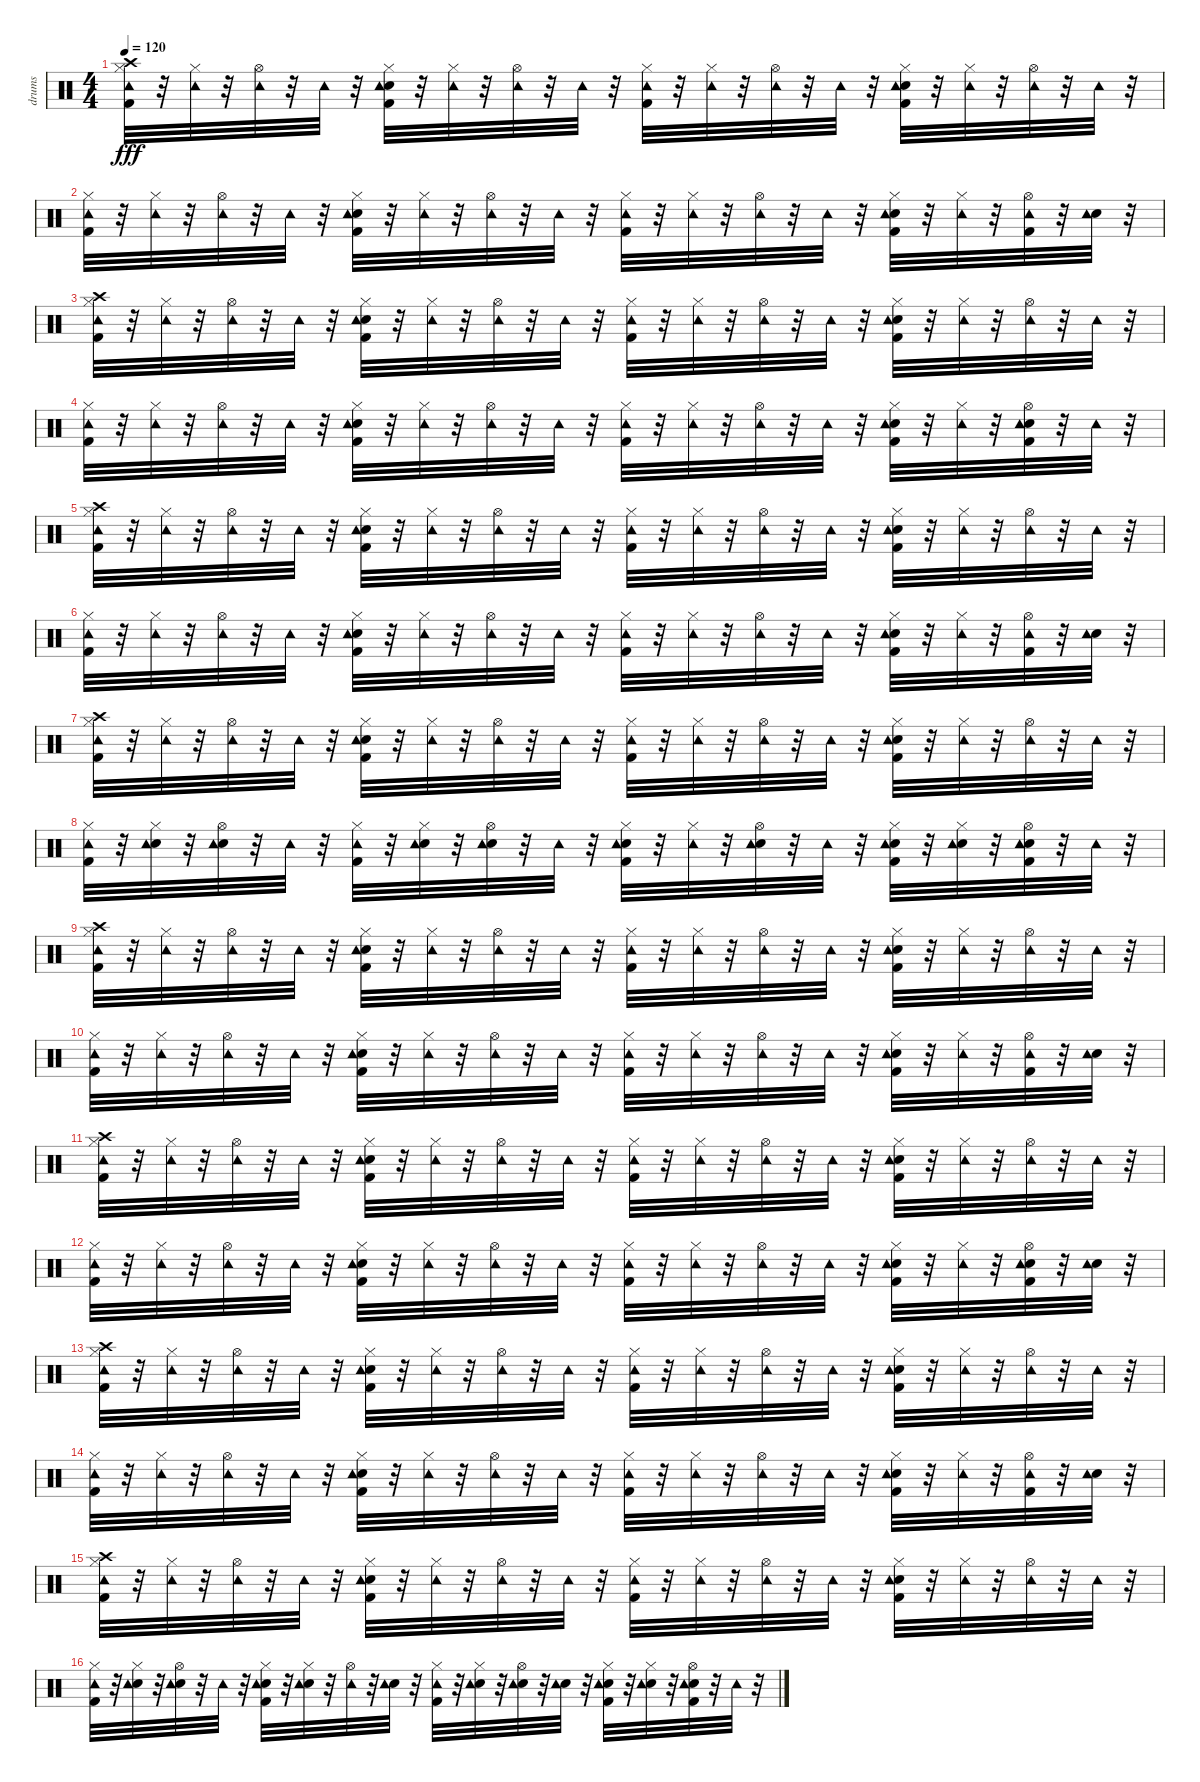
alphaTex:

\track ("drums" "drums") {instrument percussion}
\staff {score}
\articulation defaults
\ts (4 4)
\tempo 120
\clef neutral
\ks c
("Crash high (hit)" "Kick (hit) 2" "Hi-Hat (closed)" "Tambourine (hit)").32{dy fff} r.32 ("Hi-Hat (closed)" "Tambourine (hit)").32 r.32 ("Hi-Hat (open)" "Tambourine (hit)").32 r.32 "Tambourine (hit)".32 r.32 ("Snare (hit) 2" "Kick (hit) 2" "Hi-Hat (closed)" "Tambourine (hit)").32 r.32 ("Hi-Hat (closed)" "Tambourine (hit)").32 r.32 ("Hi-Hat (open)" "Tambourine (hit)").32 r.32 "Tambourine (hit)".32 r.32 ("Kick (hit) 2" "Hi-Hat (closed)" "Tambourine (hit)").32 r.32 ("Hi-Hat (closed)" "Tambourine (hit)").32 r.32 ("Hi-Hat (open)" "Tambourine (hit)").32 r.32 "Tambourine (hit)".32 r.32 ("Snare (hit) 2" "Kick (hit) 2" "Hi-Hat (closed)" "Tambourine (hit)").32 r.32 ("Hi-Hat (closed)" "Tambourine (hit)").32 r.32 ("Hi-Hat (open)" "Tambourine (hit)").32 r.32 "Tambourine (hit)".32 r.32 |
("Kick (hit) 2" "Hi-Hat (closed)" "Tambourine (hit)").32 r.32 ("Hi-Hat (closed)" "Tambourine (hit)").32 r.32 ("Hi-Hat (open)" "Tambourine (hit)").32 r.32 "Tambourine (hit)".32 r.32 ("Snare (hit) 2" "Kick (hit) 2" "Hi-Hat (closed)" "Tambourine (hit)").32 r.32 ("Hi-Hat (closed)" "Tambourine (hit)").32 r.32 ("Hi-Hat (open)" "Tambourine (hit)").32 r.32 "Tambourine (hit)".32 r.32 ("Kick (hit) 2" "Hi-Hat (closed)" "Tambourine (hit)").32 r.32 ("Hi-Hat (closed)" "Tambourine (hit)").32 r.32 ("Hi-Hat (open)" "Tambourine (hit)").32 r.32 "Tambourine (hit)".32 r.32 ("Snare (hit) 2" "Kick (hit) 2" "Hi-Hat (closed)" "Tambourine (hit)").32 r.32 ("Hi-Hat (closed)" "Tambourine (hit)").32 r.32 ("Kick (hit) 2" "Hi-Hat (open)" "Tambourine (hit)").32 r.32 ("Snare (hit) 2" "Tambourine (hit)").32 r.32 |
("Crash high (hit)" "Kick (hit) 2" "Hi-Hat (closed)" "Tambourine (hit)").32 r.32 ("Hi-Hat (closed)" "Tambourine (hit)").32 r.32 ("Hi-Hat (open)" "Tambourine (hit)").32 r.32 "Tambourine (hit)".32 r.32 ("Snare (hit) 2" "Kick (hit) 2" "Hi-Hat (closed)" "Tambourine (hit)").32 r.32 ("Hi-Hat (closed)" "Tambourine (hit)").32 r.32 ("Hi-Hat (open)" "Tambourine (hit)").32 r.32 "Tambourine (hit)".32 r.32 ("Kick (hit) 2" "Hi-Hat (closed)" "Tambourine (hit)").32 r.32 ("Hi-Hat (closed)" "Tambourine (hit)").32 r.32 ("Hi-Hat (open)" "Tambourine (hit)").32 r.32 "Tambourine (hit)".32 r.32 ("Snare (hit) 2" "Kick (hit) 2" "Hi-Hat (closed)" "Tambourine (hit)").32 r.32 ("Hi-Hat (closed)" "Tambourine (hit)").32 r.32 ("Hi-Hat (open)" "Tambourine (hit)").32 r.32 "Tambourine (hit)".32 r.32 |
("Kick (hit) 2" "Hi-Hat (closed)" "Tambourine (hit)").32 r.32 ("Hi-Hat (closed)" "Tambourine (hit)").32 r.32 ("Hi-Hat (open)" "Tambourine (hit)").32 r.32 "Tambourine (hit)".32 r.32 ("Snare (hit) 2" "Kick (hit) 2" "Hi-Hat (closed)" "Tambourine (hit)").32 r.32 ("Hi-Hat (closed)" "Tambourine (hit)").32 r.32 ("Hi-Hat (open)" "Tambourine (hit)").32 r.32 "Tambourine (hit)".32 r.32 ("Kick (hit) 2" "Hi-Hat (closed)" "Tambourine (hit)").32 r.32 ("Hi-Hat (closed)" "Tambourine (hit)").32 r.32 ("Hi-Hat (open)" "Tambourine (hit)").32 r.32 "Tambourine (hit)".32 r.32 ("Snare (hit) 2" "Kick (hit) 2" "Hi-Hat (closed)" "Tambourine (hit)").32 r.32 ("Hi-Hat (closed)" "Tambourine (hit)").32 r.32 ("Kick (hit) 2" "Snare (hit) 2" "Hi-Hat (open)" "Tambourine (hit)").32 r.32 "Tambourine (hit)".32 r.32 |
("Crash high (hit)" "Kick (hit) 2" "Hi-Hat (closed)" "Tambourine (hit)").32 r.32 ("Hi-Hat (closed)" "Tambourine (hit)").32 r.32 ("Hi-Hat (open)" "Tambourine (hit)").32 r.32 "Tambourine (hit)".32 r.32 ("Snare (hit) 2" "Kick (hit) 2" "Hi-Hat (closed)" "Tambourine (hit)").32 r.32 ("Hi-Hat (closed)" "Tambourine (hit)").32 r.32 ("Hi-Hat (open)" "Tambourine (hit)").32 r.32 "Tambourine (hit)".32 r.32 ("Kick (hit) 2" "Hi-Hat (closed)" "Tambourine (hit)").32 r.32 ("Hi-Hat (closed)" "Tambourine (hit)").32 r.32 ("Hi-Hat (open)" "Tambourine (hit)").32 r.32 "Tambourine (hit)".32 r.32 ("Snare (hit) 2" "Kick (hit) 2" "Hi-Hat (closed)" "Tambourine (hit)").32 r.32 ("Hi-Hat (closed)" "Tambourine (hit)").32 r.32 ("Hi-Hat (open)" "Tambourine (hit)").32 r.32 "Tambourine (hit)".32 r.32 |
("Kick (hit) 2" "Hi-Hat (closed)" "Tambourine (hit)").32 r.32 ("Hi-Hat (closed)" "Tambourine (hit)").32 r.32 ("Hi-Hat (open)" "Tambourine (hit)").32 r.32 "Tambourine (hit)".32 r.32 ("Snare (hit) 2" "Kick (hit) 2" "Hi-Hat (closed)" "Tambourine (hit)").32 r.32 ("Hi-Hat (closed)" "Tambourine (hit)").32 r.32 ("Hi-Hat (open)" "Tambourine (hit)").32 r.32 "Tambourine (hit)".32 r.32 ("Kick (hit) 2" "Hi-Hat (closed)" "Tambourine (hit)").32 r.32 ("Hi-Hat (closed)" "Tambourine (hit)").32 r.32 ("Hi-Hat (open)" "Tambourine (hit)").32 r.32 "Tambourine (hit)".32 r.32 ("Snare (hit) 2" "Kick (hit) 2" "Hi-Hat (closed)" "Tambourine (hit)").32 r.32 ("Hi-Hat (closed)" "Tambourine (hit)").32 r.32 ("Kick (hit) 2" "Hi-Hat (open)" "Tambourine (hit)").32 r.32 ("Snare (hit) 2" "Tambourine (hit)").32 r.32 |
("Crash high (hit)" "Kick (hit) 2" "Hi-Hat (closed)" "Tambourine (hit)").32 r.32 ("Hi-Hat (closed)" "Tambourine (hit)").32 r.32 ("Hi-Hat (open)" "Tambourine (hit)").32 r.32 "Tambourine (hit)".32 r.32 ("Snare (hit) 2" "Kick (hit) 2" "Hi-Hat (closed)" "Tambourine (hit)").32 r.32 ("Hi-Hat (closed)" "Tambourine (hit)").32 r.32 ("Hi-Hat (open)" "Tambourine (hit)").32 r.32 "Tambourine (hit)".32 r.32 ("Kick (hit) 2" "Hi-Hat (closed)" "Tambourine (hit)").32 r.32 ("Hi-Hat (closed)" "Tambourine (hit)").32 r.32 ("Hi-Hat (open)" "Tambourine (hit)").32 r.32 "Tambourine (hit)".32 r.32 ("Snare (hit) 2" "Kick (hit) 2" "Hi-Hat (closed)" "Tambourine (hit)").32 r.32 ("Hi-Hat (closed)" "Tambourine (hit)").32 r.32 ("Hi-Hat (open)" "Tambourine (hit)").32 r.32 "Tambourine (hit)".32 r.32 |
("Kick (hit) 2" "Hi-Hat (closed)" "Tambourine (hit)").32 r.32 ("Snare (hit) 2" "Hi-Hat (closed)" "Tambourine (hit)").32 r.32 ("Snare (hit) 2" "Hi-Hat (open)" "Tambourine (hit)").32 r.32 "Tambourine (hit)".32 r.32 ("Kick (hit) 2" "Hi-Hat (closed)" "Tambourine (hit)").32 r.32 ("Snare (hit) 2" "Hi-Hat (closed)" "Tambourine (hit)").32 r.32 ("Snare (hit) 2" "Hi-Hat (open)" "Tambourine (hit)").32 r.32 "Tambourine (hit)".32 r.32 ("Kick (hit) 2" "Snare (hit) 2" "Hi-Hat (closed)" "Tambourine (hit)").32 r.32 ("Hi-Hat (closed)" "Tambourine (hit)").32 r.32 ("Snare (hit) 2" "Hi-Hat (open)" "Tambourine (hit)").32 r.32 "Tambourine (hit)".32 r.32 ("Snare (hit) 2" "Kick (hit) 2" "Hi-Hat (closed)" "Tambourine (hit)").32 r.32 ("Snare (hit) 2" "Hi-Hat (closed)" "Tambourine (hit)").32 r.32 ("Kick (hit) 2" "Snare (hit) 2" "Hi-Hat (open)" "Tambourine (hit)").32 r.32 "Tambourine (hit)".32 r.32 |
("Crash high (hit)" "Kick (hit) 2" "Hi-Hat (closed)" "Tambourine (hit)").32 r.32 ("Hi-Hat (closed)" "Tambourine (hit)").32 r.32 ("Hi-Hat (open)" "Tambourine (hit)").32 r.32 "Tambourine (hit)".32 r.32 ("Snare (hit) 2" "Kick (hit) 2" "Hi-Hat (closed)" "Tambourine (hit)").32 r.32 ("Hi-Hat (closed)" "Tambourine (hit)").32 r.32 ("Hi-Hat (open)" "Tambourine (hit)").32 r.32 "Tambourine (hit)".32 r.32 ("Kick (hit) 2" "Hi-Hat (closed)" "Tambourine (hit)").32 r.32 ("Hi-Hat (closed)" "Tambourine (hit)").32 r.32 ("Hi-Hat (open)" "Tambourine (hit)").32 r.32 "Tambourine (hit)".32 r.32 ("Snare (hit) 2" "Kick (hit) 2" "Hi-Hat (closed)" "Tambourine (hit)").32 r.32 ("Hi-Hat (closed)" "Tambourine (hit)").32 r.32 ("Hi-Hat (open)" "Tambourine (hit)").32 r.32 "Tambourine (hit)".32 r.32 |
("Kick (hit) 2" "Hi-Hat (closed)" "Tambourine (hit)").32 r.32 ("Hi-Hat (closed)" "Tambourine (hit)").32 r.32 ("Hi-Hat (open)" "Tambourine (hit)").32 r.32 "Tambourine (hit)".32 r.32 ("Snare (hit) 2" "Kick (hit) 2" "Hi-Hat (closed)" "Tambourine (hit)").32 r.32 ("Hi-Hat (closed)" "Tambourine (hit)").32 r.32 ("Hi-Hat (open)" "Tambourine (hit)").32 r.32 "Tambourine (hit)".32 r.32 ("Kick (hit) 2" "Hi-Hat (closed)" "Tambourine (hit)").32 r.32 ("Hi-Hat (closed)" "Tambourine (hit)").32 r.32 ("Hi-Hat (open)" "Tambourine (hit)").32 r.32 "Tambourine (hit)".32 r.32 ("Snare (hit) 2" "Kick (hit) 2" "Hi-Hat (closed)" "Tambourine (hit)").32 r.32 ("Hi-Hat (closed)" "Tambourine (hit)").32 r.32 ("Kick (hit) 2" "Hi-Hat (open)" "Tambourine (hit)").32 r.32 ("Snare (hit) 2" "Tambourine (hit)").32 r.32 |
("Crash high (hit)" "Kick (hit) 2" "Hi-Hat (closed)" "Tambourine (hit)").32 r.32 ("Hi-Hat (closed)" "Tambourine (hit)").32 r.32 ("Hi-Hat (open)" "Tambourine (hit)").32 r.32 "Tambourine (hit)".32 r.32 ("Snare (hit) 2" "Kick (hit) 2" "Hi-Hat (closed)" "Tambourine (hit)").32 r.32 ("Hi-Hat (closed)" "Tambourine (hit)").32 r.32 ("Hi-Hat (open)" "Tambourine (hit)").32 r.32 "Tambourine (hit)".32 r.32 ("Kick (hit) 2" "Hi-Hat (closed)" "Tambourine (hit)").32 r.32 ("Hi-Hat (closed)" "Tambourine (hit)").32 r.32 ("Hi-Hat (open)" "Tambourine (hit)").32 r.32 "Tambourine (hit)".32 r.32 ("Snare (hit) 2" "Kick (hit) 2" "Hi-Hat (closed)" "Tambourine (hit)").32 r.32 ("Hi-Hat (closed)" "Tambourine (hit)").32 r.32 ("Hi-Hat (open)" "Tambourine (hit)").32 r.32 "Tambourine (hit)".32 r.32 |
("Kick (hit) 2" "Hi-Hat (closed)" "Tambourine (hit)").32 r.32 ("Hi-Hat (closed)" "Tambourine (hit)").32 r.32 ("Hi-Hat (open)" "Tambourine (hit)").32 r.32 "Tambourine (hit)".32 r.32 ("Snare (hit) 2" "Kick (hit) 2" "Hi-Hat (closed)" "Tambourine (hit)").32 r.32 ("Hi-Hat (closed)" "Tambourine (hit)").32 r.32 ("Hi-Hat (open)" "Tambourine (hit)").32 r.32 "Tambourine (hit)".32 r.32 ("Kick (hit) 2" "Hi-Hat (closed)" "Tambourine (hit)").32 r.32 ("Hi-Hat (closed)" "Tambourine (hit)").32 r.32 ("Hi-Hat (open)" "Tambourine (hit)").32 r.32 "Tambourine (hit)".32 r.32 ("Snare (hit) 2" "Kick (hit) 2" "Hi-Hat (closed)" "Tambourine (hit)").32 r.32 ("Hi-Hat (closed)" "Tambourine (hit)").32 r.32 ("Kick (hit) 2" "Snare (hit) 2" "Hi-Hat (open)" "Tambourine (hit)").32 r.32 ("Snare (hit) 2" "Tambourine (hit)").32 r.32 |
("Crash high (hit)" "Kick (hit) 2" "Hi-Hat (closed)" "Tambourine (hit)").32 r.32 ("Hi-Hat (closed)" "Tambourine (hit)").32 r.32 ("Hi-Hat (open)" "Tambourine (hit)").32 r.32 "Tambourine (hit)".32 r.32 ("Snare (hit) 2" "Kick (hit) 2" "Hi-Hat (closed)" "Tambourine (hit)").32 r.32 ("Hi-Hat (closed)" "Tambourine (hit)").32 r.32 ("Hi-Hat (open)" "Tambourine (hit)").32 r.32 "Tambourine (hit)".32 r.32 ("Kick (hit) 2" "Hi-Hat (closed)" "Tambourine (hit)").32 r.32 ("Hi-Hat (closed)" "Tambourine (hit)").32 r.32 ("Hi-Hat (open)" "Tambourine (hit)").32 r.32 "Tambourine (hit)".32 r.32 ("Snare (hit) 2" "Kick (hit) 2" "Hi-Hat (closed)" "Tambourine (hit)").32 r.32 ("Hi-Hat (closed)" "Tambourine (hit)").32 r.32 ("Hi-Hat (open)" "Tambourine (hit)").32 r.32 "Tambourine (hit)".32 r.32 |
("Kick (hit) 2" "Hi-Hat (closed)" "Tambourine (hit)").32 r.32 ("Hi-Hat (closed)" "Tambourine (hit)").32 r.32 ("Hi-Hat (open)" "Tambourine (hit)").32 r.32 "Tambourine (hit)".32 r.32 ("Snare (hit) 2" "Kick (hit) 2" "Hi-Hat (closed)" "Tambourine (hit)").32 r.32 ("Hi-Hat (closed)" "Tambourine (hit)").32 r.32 ("Hi-Hat (open)" "Tambourine (hit)").32 r.32 "Tambourine (hit)".32 r.32 ("Kick (hit) 2" "Hi-Hat (closed)" "Tambourine (hit)").32 r.32 ("Hi-Hat (closed)" "Tambourine (hit)").32 r.32 ("Hi-Hat (open)" "Tambourine (hit)").32 r.32 "Tambourine (hit)".32 r.32 ("Snare (hit) 2" "Kick (hit) 2" "Hi-Hat (closed)" "Tambourine (hit)").32 r.32 ("Hi-Hat (closed)" "Tambourine (hit)").32 r.32 ("Kick (hit) 2" "Hi-Hat (open)" "Tambourine (hit)").32 r.32 ("Snare (hit) 2" "Tambourine (hit)").32 r.32 |
("Crash high (hit)" "Kick (hit) 2" "Hi-Hat (closed)" "Tambourine (hit)").32 r.32 ("Hi-Hat (closed)" "Tambourine (hit)").32 r.32 ("Hi-Hat (open)" "Tambourine (hit)").32 r.32 "Tambourine (hit)".32 r.32 ("Snare (hit) 2" "Kick (hit) 2" "Hi-Hat (closed)" "Tambourine (hit)").32 r.32 ("Hi-Hat (closed)" "Tambourine (hit)").32 r.32 ("Hi-Hat (open)" "Tambourine (hit)").32 r.32 "Tambourine (hit)".32 r.32 ("Kick (hit) 2" "Hi-Hat (closed)" "Tambourine (hit)").32 r.32 ("Hi-Hat (closed)" "Tambourine (hit)").32 r.32 ("Hi-Hat (open)" "Tambourine (hit)").32 r.32 "Tambourine (hit)".32 r.32 ("Snare (hit) 2" "Kick (hit) 2" "Hi-Hat (closed)" "Tambourine (hit)").32 r.32 ("Hi-Hat (closed)" "Tambourine (hit)").32 r.32 ("Hi-Hat (open)" "Tambourine (hit)").32 r.32 "Tambourine (hit)".32 r.32 |
("Kick (hit) 2" "Hi-Hat (closed)" "Tambourine (hit)").32 r.32 ("Snare (hit) 2" "Hi-Hat (closed)" "Tambourine (hit)").32 r.32 ("Snare (hit) 2" "Hi-Hat (open)" "Tambourine (hit)").32 r.32 "Tambourine (hit)".32 r.32 ("Snare (hit) 2" "Kick (hit) 2" "Hi-Hat (closed)" "Tambourine (hit)").32 r.32 ("Snare (hit) 2" "Hi-Hat (closed)" "Tambourine (hit)").32 r.32 ("Hi-Hat (open)" "Tambourine (hit)").32 r.32 ("Snare (hit) 2" "Tambourine (hit)").32 r.32 ("Kick (hit) 2" "Hi-Hat (closed)" "Tambourine (hit)").32 r.32 ("Snare (hit) 2" "Hi-Hat (closed)" "Tambourine (hit)").32 r.32 ("Snare (hit) 2" "Hi-Hat (open)" "Tambourine (hit)").32 r.32 ("Snare (hit) 2" "Tambourine (hit)").32 r.32 ("Snare (hit) 2" "Kick (hit) 2" "Hi-Hat (closed)" "Tambourine (hit)").32 r.32 ("Snare (hit) 2" "Hi-Hat (closed)" "Tambourine (hit)").32 r.32 ("Kick (hit) 2" "Snare (hit) 2" "Hi-Hat (open)" "Tambourine (hit)").32 r.32 "Tambourine (hit)".32 r.32
